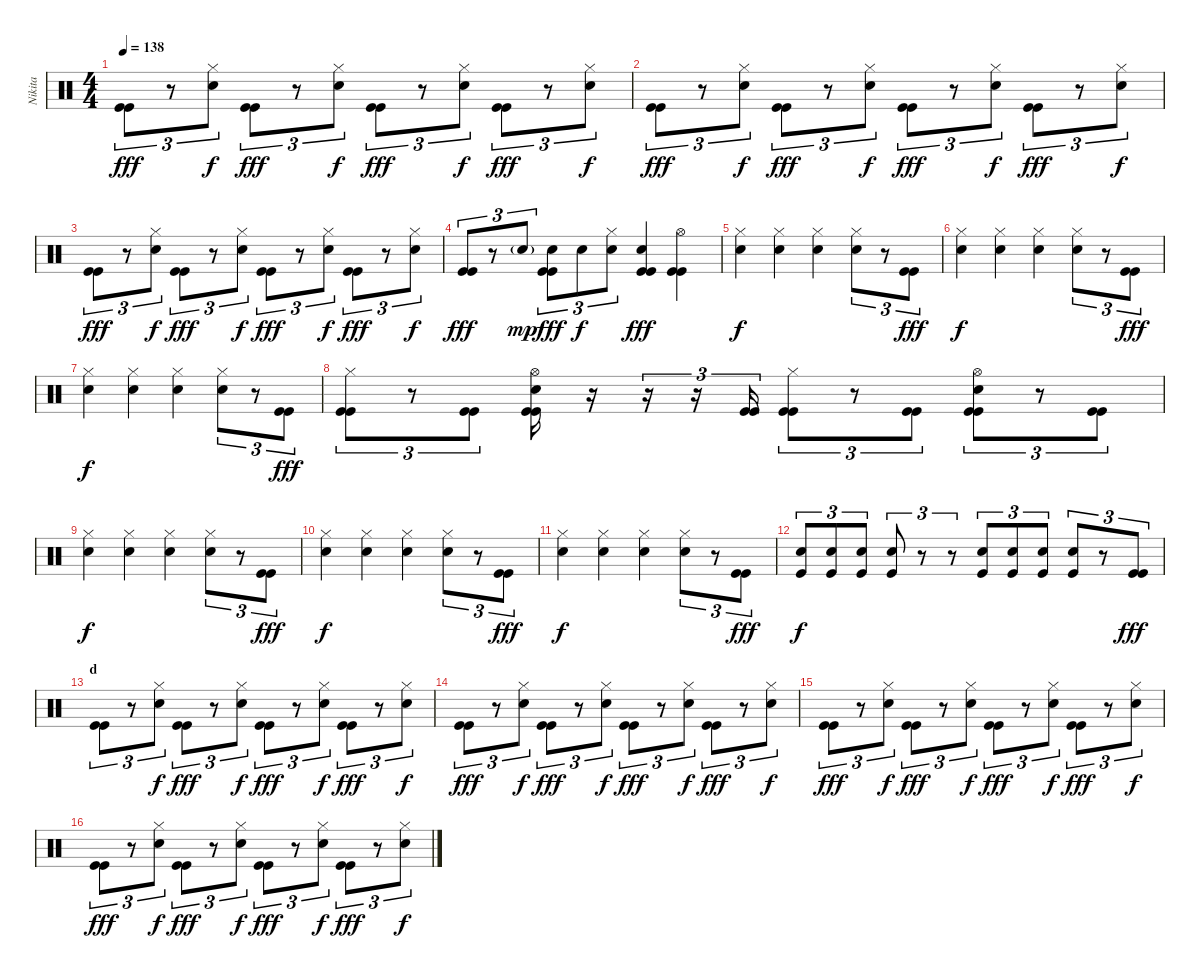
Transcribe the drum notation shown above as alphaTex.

\track ("Nikita" "Nikita") {instrument percussion}
\staff {score}
\articulation defaults
\ts (4 4)
\section ("" "")
\tempo 138
\clef neutral
\ks c
("Kick (hit)" "Kick (hit)").8{tu (3 2) dy fff} r.8{tu (3 2)} ("Snare (hit) 2" "Hi-Hat (closed)").8{tu (3 2) dy f} ("Kick (hit)" "Kick (hit)").8{tu (3 2) dy fff} r.8{tu (3 2)} ("Snare (hit) 2" "Hi-Hat (closed)").8{tu (3 2) dy f} ("Kick (hit)" "Kick (hit)").8{tu (3 2) dy fff} r.8{tu (3 2)} ("Snare (hit) 2" "Hi-Hat (closed)").8{tu (3 2) dy f} ("Kick (hit)" "Kick (hit)").8{tu (3 2) dy fff} r.8{tu (3 2)} ("Snare (hit) 2" "Hi-Hat (closed)").8{tu (3 2) dy f} |
("Kick (hit)" "Kick (hit)").8{tu (3 2) dy fff} r.8{tu (3 2)} ("Snare (hit) 2" "Hi-Hat (closed)").8{tu (3 2) dy f} ("Kick (hit)" "Kick (hit)").8{tu (3 2) dy fff} r.8{tu (3 2)} ("Snare (hit) 2" "Hi-Hat (closed)").8{tu (3 2) dy f} ("Kick (hit)" "Kick (hit)").8{tu (3 2) dy fff} r.8{tu (3 2)} ("Snare (hit) 2" "Hi-Hat (closed)").8{tu (3 2) dy f} ("Kick (hit)" "Kick (hit)").8{tu (3 2) dy fff} r.8{tu (3 2)} ("Snare (hit) 2" "Hi-Hat (closed)").8{tu (3 2) dy f} |
("Kick (hit)" "Kick (hit)").8{tu (3 2) dy fff} r.8{tu (3 2)} ("Snare (hit) 2" "Hi-Hat (closed)").8{tu (3 2) dy f} ("Kick (hit)" "Kick (hit)").8{tu (3 2) dy fff} r.8{tu (3 2)} ("Snare (hit) 2" "Hi-Hat (closed)").8{tu (3 2) dy f} ("Kick (hit)" "Kick (hit)").8{tu (3 2) dy fff} r.8{tu (3 2)} ("Snare (hit) 2" "Hi-Hat (closed)").8{tu (3 2) dy f} ("Kick (hit)" "Kick (hit)").8{tu (3 2) dy fff} r.8{tu (3 2)} ("Snare (hit) 2" "Hi-Hat (closed)").8{tu (3 2) dy f} |
("Kick (hit)" "Kick (hit)").8{tu (3 2) dy fff} r.8{tu (3 2)} "Electric Snare (hit)"{g}.8{tu (3 2) dy mp} ("Kick (hit)" "Kick (hit)" "Electric Snare (hit)").8{tu (3 2) dy fff} "Electric Snare (hit)".8{tu (3 2) dy f} ("Electric Snare (hit)" "Hi-Hat (closed)").8{tu (3 2)} ("Kick (hit)" "Kick (hit)" "Electric Snare (hit)").4{dy fff} ("Kick (hit)" "Kick (hit)" "Hi-Hat (open)").4 |
\section ("" "")
("Snare (hit) 2" "Hi-Hat (closed)").4{dy f} ("Snare (hit) 2" "Hi-Hat (closed)").4 ("Snare (hit) 2" "Hi-Hat (closed)").4 ("Snare (hit) 2" "Hi-Hat (closed)").8{tu (3 2)} r.8{tu (3 2)} ("Kick (hit)" "Kick (hit)").8{tu (3 2) dy fff} |
("Snare (hit) 2" "Hi-Hat (closed)").4{dy f} ("Snare (hit) 2" "Hi-Hat (closed)").4 ("Snare (hit) 2" "Hi-Hat (closed)").4 ("Snare (hit) 2" "Hi-Hat (closed)").8{tu (3 2)} r.8{tu (3 2)} ("Kick (hit)" "Kick (hit)").8{tu (3 2) dy fff} |
("Snare (hit) 2" "Hi-Hat (closed)").4{dy f} ("Snare (hit) 2" "Hi-Hat (closed)").4 ("Snare (hit) 2" "Hi-Hat (closed)").4 ("Snare (hit) 2" "Hi-Hat (closed)").8{tu (3 2)} r.8{tu (3 2)} ("Kick (hit)" "Kick (hit)").8{tu (3 2) dy fff} |
("Kick (hit)" "Kick (hit)" "Hi-Hat (closed)").8{tu (3 2)} r.8{tu (3 2)} ("Kick (hit)" "Kick (hit)").8{tu (3 2)} ("Kick (hit)" "Kick (hit)" "Snare (hit) 2" "Hi-Hat (open)").16 r.16 r.16{tu (3 2)} r.16{tu (3 2)} ("Kick (hit)" "Kick (hit)").16{tu (3 2)} ("Kick (hit)" "Kick (hit)" "Hi-Hat (closed)").8{tu (3 2)} r.8{tu (3 2)} ("Kick (hit)" "Kick (hit)").8{tu (3 2)} ("Kick (hit)" "Kick (hit)" "Snare (hit) 2" "Hi-Hat (open)").8{tu (3 2)} r.8{tu (3 2)} ("Kick (hit)" "Kick (hit)").8{tu (3 2)} |
("Snare (hit) 2" "Hi-Hat (closed)").4{dy f} ("Snare (hit) 2" "Hi-Hat (closed)").4 ("Snare (hit) 2" "Hi-Hat (closed)").4 ("Snare (hit) 2" "Hi-Hat (closed)").8{tu (3 2)} r.8{tu (3 2)} ("Kick (hit)" "Kick (hit)").8{tu (3 2) dy fff} |
("Snare (hit) 2" "Hi-Hat (closed)").4{dy f} ("Snare (hit) 2" "Hi-Hat (closed)").4 ("Snare (hit) 2" "Hi-Hat (closed)").4 ("Snare (hit) 2" "Hi-Hat (closed)").8{tu (3 2)} r.8{tu (3 2)} ("Kick (hit)" "Kick (hit)").8{tu (3 2) dy fff} |
("Snare (hit) 2" "Hi-Hat (closed)").4{dy f} ("Snare (hit) 2" "Hi-Hat (closed)").4 ("Snare (hit) 2" "Hi-Hat (closed)").4 ("Snare (hit) 2" "Hi-Hat (closed)").8{tu (3 2)} r.8{tu (3 2)} ("Kick (hit)" "Kick (hit)").8{tu (3 2) dy fff} |
("Kick (hit)" "Snare (hit) 2").8{tu (3 2) dy f} ("Kick (hit)" "Snare (hit) 2").8{tu (3 2)} ("Kick (hit)" "Snare (hit) 2").8{tu (3 2)} ("Kick (hit)" "Snare (hit) 2").8{tu (3 2)} r.8{tu (3 2)} r.8{tu (3 2)} ("Kick (hit)" "Snare (hit) 2").8{tu (3 2)} ("Kick (hit)" "Snare (hit) 2").8{tu (3 2)} ("Kick (hit)" "Snare (hit) 2").8{tu (3 2)} ("Kick (hit)" "Snare (hit) 2").8{tu (3 2)} r.8{tu (3 2)} ("Kick (hit)" "Kick (hit)").8{tu (3 2) dy fff} |
\section ("" "d")
("Kick (hit)" "Kick (hit)").8{tu (3 2)} r.8{tu (3 2)} ("Snare (hit) 2" "Hi-Hat (closed)").8{tu (3 2) dy f} ("Kick (hit)" "Kick (hit)").8{tu (3 2) dy fff} r.8{tu (3 2)} ("Snare (hit) 2" "Hi-Hat (closed)").8{tu (3 2) dy f} ("Kick (hit)" "Kick (hit)").8{tu (3 2) dy fff} r.8{tu (3 2)} ("Snare (hit) 2" "Hi-Hat (closed)").8{tu (3 2) dy f} ("Kick (hit)" "Kick (hit)").8{tu (3 2) dy fff} r.8{tu (3 2)} ("Snare (hit) 2" "Hi-Hat (closed)").8{tu (3 2) dy f} |
("Kick (hit)" "Kick (hit)").8{tu (3 2) dy fff} r.8{tu (3 2)} ("Snare (hit) 2" "Hi-Hat (closed)").8{tu (3 2) dy f} ("Kick (hit)" "Kick (hit)").8{tu (3 2) dy fff} r.8{tu (3 2)} ("Snare (hit) 2" "Hi-Hat (closed)").8{tu (3 2) dy f} ("Kick (hit)" "Kick (hit)").8{tu (3 2) dy fff} r.8{tu (3 2)} ("Snare (hit) 2" "Hi-Hat (closed)").8{tu (3 2) dy f} ("Kick (hit)" "Kick (hit)").8{tu (3 2) dy fff} r.8{tu (3 2)} ("Snare (hit) 2" "Hi-Hat (closed)").8{tu (3 2) dy f} |
("Kick (hit)" "Kick (hit)").8{tu (3 2) dy fff} r.8{tu (3 2)} ("Snare (hit) 2" "Hi-Hat (closed)").8{tu (3 2) dy f} ("Kick (hit)" "Kick (hit)").8{tu (3 2) dy fff} r.8{tu (3 2)} ("Snare (hit) 2" "Hi-Hat (closed)").8{tu (3 2) dy f} ("Kick (hit)" "Kick (hit)").8{tu (3 2) dy fff} r.8{tu (3 2)} ("Snare (hit) 2" "Hi-Hat (closed)").8{tu (3 2) dy f} ("Kick (hit)" "Kick (hit)").8{tu (3 2) dy fff} r.8{tu (3 2)} ("Snare (hit) 2" "Hi-Hat (closed)").8{tu (3 2) dy f} |
("Kick (hit)" "Kick (hit)").8{tu (3 2) dy fff} r.8{tu (3 2)} ("Snare (hit) 2" "Hi-Hat (closed)").8{tu (3 2) dy f} ("Kick (hit)" "Kick (hit)").8{tu (3 2) dy fff} r.8{tu (3 2)} ("Snare (hit) 2" "Hi-Hat (closed)").8{tu (3 2) dy f} ("Kick (hit)" "Kick (hit)").8{tu (3 2) dy fff} r.8{tu (3 2)} ("Snare (hit) 2" "Hi-Hat (closed)").8{tu (3 2) dy f} ("Kick (hit)" "Kick (hit)").8{tu (3 2) dy fff} r.8{tu (3 2)} ("Snare (hit) 2" "Hi-Hat (closed)").8{tu (3 2) dy f}
